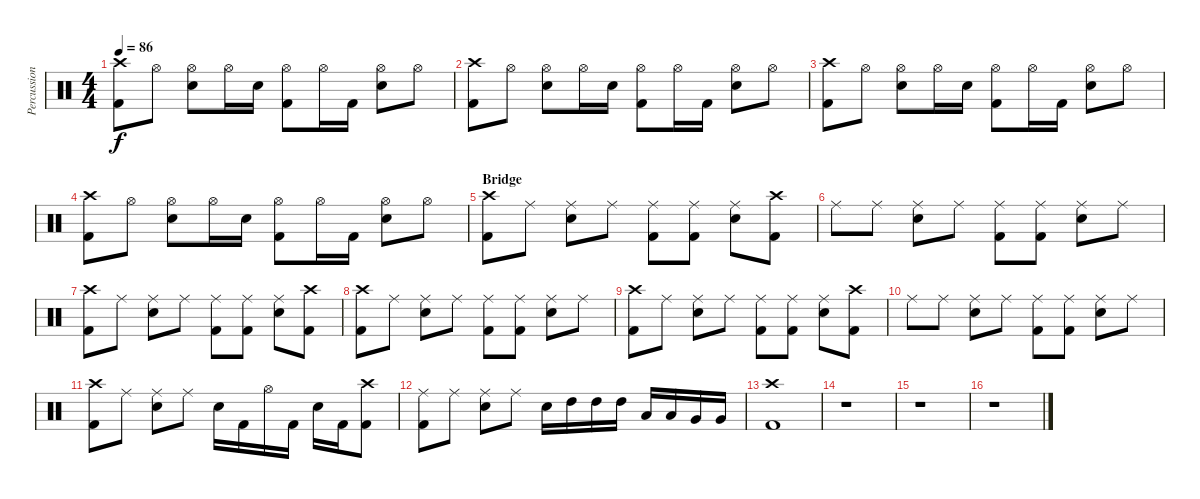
\track ("Percussions (from MIDI)" "Percussion") {instrument percussion}
\staff {score}
\articulation defaults
\ts (4 4)
\tempo 86
\clef neutral
\ks c
("Crash high (hit)" "Kick (hit) 2").8{dy f} "Hi-Hat (open)".8 ("Hi-Hat (open)" "Electric Snare (hit)").8 "Hi-Hat (open)".16 "Electric Snare (hit)".16 ("Hi-Hat (open)" "Kick (hit) 2").8 "Hi-Hat (open)".16 "Kick (hit) 2".16 ("Hi-Hat (open)" "Electric Snare (hit)").8 "Hi-Hat (open)".8 |
("Crash high (hit)" "Kick (hit) 2").8 "Hi-Hat (open)".8 ("Hi-Hat (open)" "Electric Snare (hit)").8 "Hi-Hat (open)".16 "Electric Snare (hit)".16 ("Hi-Hat (open)" "Kick (hit) 2").8 "Hi-Hat (open)".16 "Kick (hit) 2".16 ("Hi-Hat (open)" "Electric Snare (hit)").8 "Hi-Hat (open)".8 |
("Crash high (hit)" "Kick (hit) 2").8 "Hi-Hat (open)".8 ("Hi-Hat (open)" "Electric Snare (hit)").8 "Hi-Hat (open)".16 "Electric Snare (hit)".16 ("Hi-Hat (open)" "Kick (hit) 2").8 "Hi-Hat (open)".16 "Kick (hit) 2".16 ("Hi-Hat (open)" "Electric Snare (hit)").8 "Hi-Hat (open)".8 |
("Crash high (hit)" "Kick (hit) 2").8 "Hi-Hat (open)".8 ("Hi-Hat (open)" "Electric Snare (hit)").8 "Hi-Hat (open)".16 "Electric Snare (hit)".16 ("Hi-Hat (open)" "Kick (hit) 2").8 "Hi-Hat (open)".16 "Kick (hit) 2".16 ("Hi-Hat (open)" "Electric Snare (hit)").8 "Hi-Hat (open)".8 |
\section ("" "Bridge")
("Crash high (hit)" "Kick (hit) 2").8 "Ride (middle)".8 ("Ride (middle)" "Electric Snare (hit)").8 "Ride (middle)".8 ("Ride (middle)" "Kick (hit) 2").8 ("Ride (middle)" "Kick (hit) 2").8 ("Ride (middle)" "Electric Snare (hit)").8 ("Crash high (hit)" "Kick (hit) 2").8 |
"Ride (middle)".8 "Ride (middle)".8 ("Ride (middle)" "Electric Snare (hit)").8 "Ride (middle)".8 ("Ride (middle)" "Kick (hit) 2").8 ("Ride (middle)" "Kick (hit) 2").8 ("Ride (middle)" "Electric Snare (hit)").8 "Ride (middle)".8 |
("Crash high (hit)" "Kick (hit) 2").8 "Ride (middle)".8 ("Ride (middle)" "Electric Snare (hit)").8 "Ride (middle)".8 ("Ride (middle)" "Kick (hit) 2").8 ("Ride (middle)" "Kick (hit) 2").8 ("Ride (middle)" "Electric Snare (hit)").8 ("Crash high (hit)" "Kick (hit) 2").8 |
("Crash high (hit)" "Kick (hit) 2").8 "Ride (middle)".8 ("Ride (middle)" "Electric Snare (hit)").8 "Ride (middle)".8 ("Ride (middle)" "Kick (hit) 2").8 ("Ride (middle)" "Kick (hit) 2").8 ("Ride (middle)" "Electric Snare (hit)").8 "Ride (middle)".8 |
("Crash high (hit)" "Kick (hit) 2").8 "Ride (middle)".8 ("Ride (middle)" "Electric Snare (hit)").8 "Ride (middle)".8 ("Ride (middle)" "Kick (hit) 2").8 ("Ride (middle)" "Kick (hit) 2").8 ("Ride (middle)" "Electric Snare (hit)").8 ("Crash high (hit)" "Kick (hit) 2").8 |
"Ride (middle)".8 "Ride (middle)".8 ("Ride (middle)" "Electric Snare (hit)").8 "Ride (middle)".8 ("Ride (middle)" "Kick (hit) 2").8 ("Ride (middle)" "Kick (hit) 2").8 ("Ride (middle)" "Electric Snare (hit)").8 "Ride (middle)".8 |
("Crash high (hit)" "Kick (hit) 2").8 "Ride (middle)".8 ("Ride (middle)" "Electric Snare (hit)").8 "Ride (middle)".8 "Electric Snare (hit)".16 "Kick (hit) 2".16 "Hi-Hat (open)".16 "Kick (hit) 2".16 "Electric Snare (hit)".16 "Kick (hit) 2".16 ("Crash high (hit)" "Kick (hit) 2").8 |
("Ride (middle)" "Kick (hit) 2").8 "Ride (middle)".8 ("Ride (middle)" "Electric Snare (hit)").8 "Ride (middle)".8 "Electric Snare (hit)".16 "High Tom (hit)".16 "High Tom (hit)".16 "High Tom (hit)".16 "Low Tom (hit)".16 "Low Tom (hit)".16 "Very Low Tom (hit)".16 "Very Low Tom (hit)".16 |
("Crash high (hit)" "Kick (hit) 2").1 |
r.1 |
r.1 |
r.1
